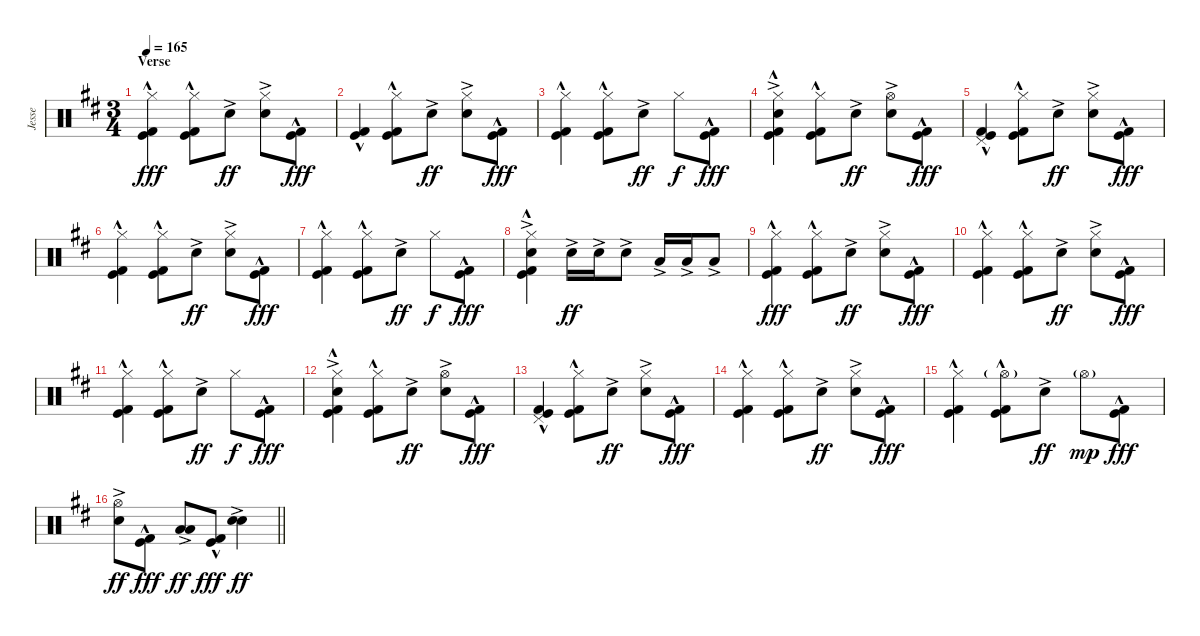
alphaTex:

\track ("Jesse" "Jesse") {instrument percussion}
\staff {score}
\articulation defaults
\ts (3 4)
\section ("" "Verse")
\tempo 165
\clef neutral
\ks d
("Hi-Hat (closed)" "Kick (hit)"{hac} "Kick (hit) 2"{hac}).4{dy fff} ("Hi-Hat (closed)" "Kick (hit)"{hac} "Kick (hit) 2"{hac}).8 "Electric Snare (hit)"{ac}.8{dy ff} ("Hi-Hat (closed)" "Electric Snare (hit)"{ac}).8 ("Kick (hit)"{hac} "Kick (hit) 2"{hac}).8{dy fff} |
("Kick (hit)"{hac} "Kick (hit) 2"{hac}).4 ("Hi-Hat (closed)" "Kick (hit)"{hac} "Kick (hit) 2"{hac}).8 "Electric Snare (hit)"{ac}.8{dy ff} ("Hi-Hat (closed)" "Electric Snare (hit)"{ac}).8 ("Kick (hit)"{hac} "Kick (hit) 2"{hac}).8{dy fff} |
("Hi-Hat (closed)" "Kick (hit)"{hac} "Kick (hit) 2"{hac}).4 ("Hi-Hat (closed)" "Kick (hit)"{hac} "Kick (hit) 2"{hac}).8 "Electric Snare (hit)"{ac}.8{dy ff} "Hi-Hat (closed)".8{dy f} ("Kick (hit)"{hac} "Kick (hit) 2"{hac}).8{dy fff} |
("Hi-Hat (closed)" "Electric Snare (hit)"{ac} "Kick (hit)"{hac} "Kick (hit) 2"{hac}).4 ("Hi-Hat (closed)" "Kick (hit)"{hac} "Kick (hit) 2"{hac}).8 "Electric Snare (hit)"{ac}.8{dy ff} ("Hi-Hat (open)" "Electric Snare (hit)"{ac}).8 ("Kick (hit)"{hac} "Kick (hit) 2"{hac}).8{dy fff} |
("Pedal Hi-Hat (hit)" "Kick (hit)"{hac} "Kick (hit) 2"{hac}).4 ("Hi-Hat (closed)" "Kick (hit)"{hac} "Kick (hit) 2"{hac}).8 "Electric Snare (hit)"{ac}.8{dy ff} ("Hi-Hat (closed)" "Electric Snare (hit)"{ac}).8 ("Kick (hit)"{hac} "Kick (hit) 2"{hac}).8{dy fff} |
("Hi-Hat (closed)" "Kick (hit)"{hac} "Kick (hit) 2"{hac}).4 ("Hi-Hat (closed)" "Kick (hit)"{hac} "Kick (hit) 2"{hac}).8 "Electric Snare (hit)"{ac}.8{dy ff} ("Hi-Hat (closed)" "Electric Snare (hit)"{ac}).8 ("Kick (hit)"{hac} "Kick (hit) 2"{hac}).8{dy fff} |
("Hi-Hat (closed)" "Kick (hit)"{hac} "Kick (hit) 2"{hac}).4 ("Hi-Hat (closed)" "Kick (hit)"{hac} "Kick (hit) 2"{hac}).8 "Electric Snare (hit)"{ac}.8{dy ff} "Hi-Hat (closed)".8{dy f} ("Kick (hit)"{hac} "Kick (hit) 2"{hac}).8{dy fff} |
("Hi-Hat (closed)" "Electric Snare (hit)"{ac} "Kick (hit)"{hac} "Kick (hit) 2"{hac}).4 "Electric Snare (hit)"{ac}.16{dy ff} "Electric Snare (hit)"{ac}.16 "Electric Snare (hit)"{ac}.8 "Low Floor Tom (hit)"{ac}.16 "Low Floor Tom (hit)"{ac}.16 "Low Floor Tom (hit)"{ac}.8 |
("Hi-Hat (closed)" "Kick (hit)"{hac} "Kick (hit) 2"{hac}).4{dy fff} ("Hi-Hat (closed)" "Kick (hit)"{hac} "Kick (hit) 2"{hac}).8 "Electric Snare (hit)"{ac}.8{dy ff} ("Hi-Hat (closed)" "Electric Snare (hit)"{ac}).8 ("Kick (hit)"{hac} "Kick (hit) 2"{hac}).8{dy fff} |
("Hi-Hat (closed)" "Kick (hit)"{hac} "Kick (hit) 2"{hac}).4 ("Hi-Hat (closed)" "Kick (hit)"{hac} "Kick (hit) 2"{hac}).8 "Electric Snare (hit)"{ac}.8{dy ff} ("Hi-Hat (closed)" "Electric Snare (hit)"{ac}).8 ("Kick (hit)"{hac} "Kick (hit) 2"{hac}).8{dy fff} |
("Hi-Hat (closed)" "Kick (hit)"{hac} "Kick (hit) 2"{hac}).4 ("Hi-Hat (closed)" "Kick (hit)"{hac} "Kick (hit) 2"{hac}).8 "Electric Snare (hit)"{ac}.8{dy ff} "Hi-Hat (closed)".8{dy f} ("Kick (hit)"{hac} "Kick (hit) 2"{hac}).8{dy fff} |
("Hi-Hat (closed)" "Electric Snare (hit)"{ac} "Kick (hit)"{hac} "Kick (hit) 2"{hac}).4 ("Hi-Hat (closed)" "Kick (hit)"{hac} "Kick (hit) 2"{hac}).8 "Electric Snare (hit)"{ac}.8{dy ff} ("Hi-Hat (open)" "Electric Snare (hit)"{ac}).8 ("Kick (hit)"{hac} "Kick (hit) 2"{hac}).8{dy fff} |
("Pedal Hi-Hat (hit)" "Kick (hit)"{hac} "Kick (hit) 2"{hac}).4 ("Hi-Hat (closed)" "Kick (hit)"{hac} "Kick (hit) 2"{hac}).8 "Electric Snare (hit)"{ac}.8{dy ff} ("Hi-Hat (closed)" "Electric Snare (hit)"{ac}).8 ("Kick (hit)"{hac} "Kick (hit) 2"{hac}).8{dy fff} |
("Hi-Hat (closed)" "Kick (hit)"{hac} "Kick (hit) 2"{hac}).4 ("Hi-Hat (closed)" "Kick (hit)"{hac} "Kick (hit) 2"{hac}).8 "Electric Snare (hit)"{ac}.8{dy ff} ("Hi-Hat (closed)" "Electric Snare (hit)"{ac}).8 ("Kick (hit)"{hac} "Kick (hit) 2"{hac}).8{dy fff} |
("Hi-Hat (closed)" "Kick (hit)"{hac} "Kick (hit) 2"{hac}).4 ("Hi-Hat (open)"{g} "Kick (hit)"{hac} "Kick (hit) 2"{hac}).8 "Electric Snare (hit)"{ac}.8{dy ff} "Hi-Hat (open)"{g}.8{dy mp} ("Kick (hit)"{hac} "Kick (hit) 2"{hac}).8{dy fff} |
\barLineRight lightlight
("Hi-Hat (open)" "Electric Snare (hit)"{ac}).8{dy ff} ("Kick (hit)"{hac} "Kick (hit) 2"{hac}).8{dy fff} ("Low Tom (hit)"{ac} "Low Floor Tom (hit)"{ac}).8{dy ff} ("Kick (hit)"{hac} "Kick (hit) 2"{hac}).8{dy fff} ("Electric Snare (hit)"{ac} "Snare (hit) 2"{ac}).4{dy ff}
